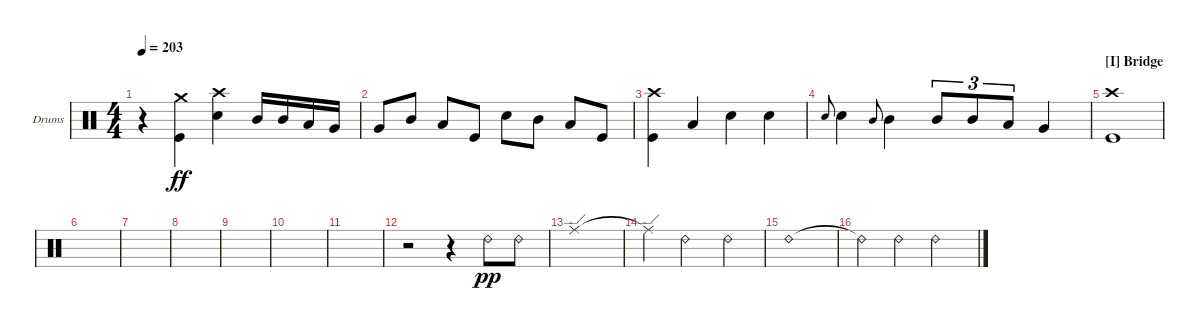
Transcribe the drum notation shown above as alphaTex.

\defaultSystemsLayout 4
\bracketExtendMode groupsimilarinstruments
\firstSystemTrackNameOrientation horizontal
\otherSystemsTrackNameOrientation horizontal
\track ("Brandon Barnes - Drums" "Drums") {instrument percussion}
\staff {score}
\articulation defaults
\ts (4 4)
\tempo 203
\clef neutral
\ks c
r.4{dy ff} ("Kick (hit)" "Crash medium (hit)").4 ("Snare (hit) 2" "Crash high (hit)").4 "Mid Tom (hit)".16 "Mid Tom (hit)".16 "Low Tom (hit)".16 "Very Low Tom (hit)".16 |
"Very Low Tom (hit)".8 "Mid Tom (hit)".8 "Low Tom (hit)".8 "Kick (hit)".8 "Snare (hit) 2".8 "Mid Tom (hit)".8 "Low Tom (hit)".8 "Kick (hit)".8 |
("Kick (hit)" "Crash high (hit)").4 "Low Tom (hit)".4 "Snare (hit) 2".4 "Snare (hit) 2".4 |
"Snare (hit) 2".8{gr onbeat} "Snare (hit) 2".4 "Mid Tom (hit)".8{gr onbeat} "Mid Tom (hit)".4 "Mid Tom (hit)".8{tu (3 2)} "Mid Tom (hit)".8{tu (3 2)} "Low Tom (hit)".8{tu (3 2)} "Very Low Tom (hit)".4 |
\section ("I" "Bridge")
("Kick (hit)" "Crash high (hit)").1 |
|
|
|
|
|
|
r.2 r.4 "Ride (bell) 2".8{dy pp} "Ride (bell) 2".8 |
"Ride (edge)".1 |
"Ride (edge)"{t}.4 "Ride (bell) 2".2 "Ride (bell) 2".4 |
"Ride (bell) 2".1 |
"Ride (bell) 2"{t}.4 "Ride (bell) 2".4 "Ride (bell) 2".2
